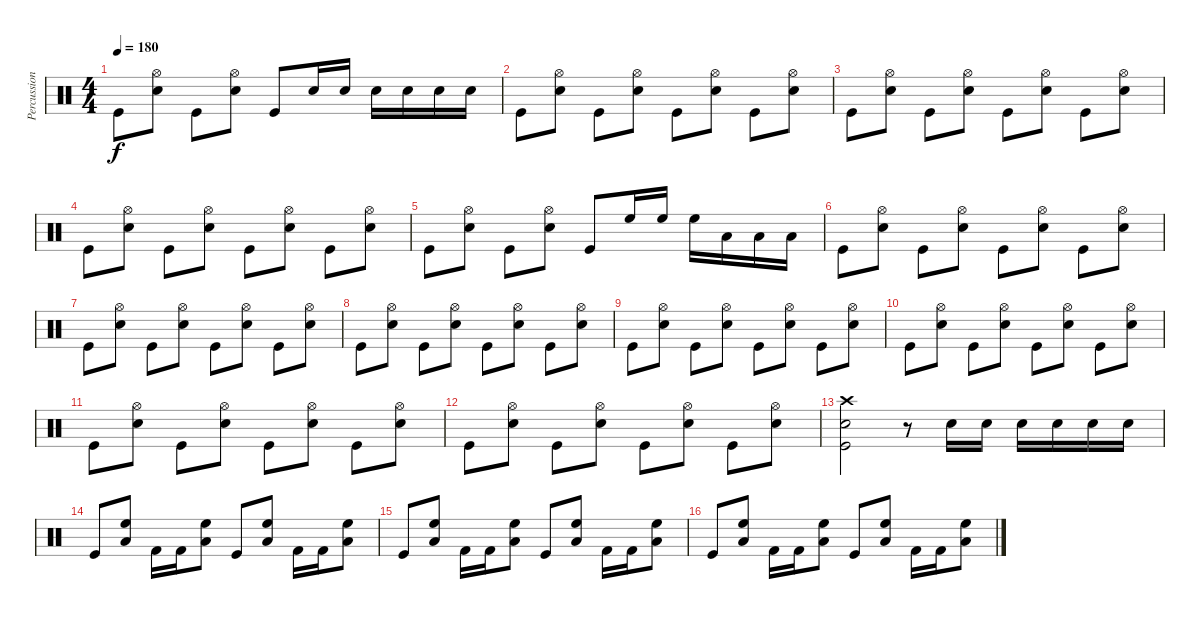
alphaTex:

\track ("Percussion" "Percussion") {instrument percussion}
\staff {score}
\articulation defaults
\ts (4 4)
\tempo 180
\clef neutral
\ks c "Kick (hit)".8{dy f}
("Hi-Hat (open)" "Electric Snare (hit)").8 "Kick (hit)".8 ("Hi-Hat (open)" "Electric Snare (hit)").8 "Kick (hit)".8 "Electric Snare (hit)".16 "Electric Snare (hit)".16 "Electric Snare (hit)".16 "Electric Snare (hit)".16 "Electric Snare (hit)".16 "Electric Snare (hit)".16 |
"Kick (hit)".8 ("Hi-Hat (open)" "Electric Snare (hit)").8 "Kick (hit)".8 ("Hi-Hat (open)" "Electric Snare (hit)").8 "Kick (hit)".8 ("Hi-Hat (open)" "Electric Snare (hit)").8 "Kick (hit)".8 ("Hi-Hat (open)" "Electric Snare (hit)").8 |
"Kick (hit)".8 ("Hi-Hat (open)" "Electric Snare (hit)").8 "Kick (hit)".8 ("Hi-Hat (open)" "Electric Snare (hit)").8 "Kick (hit)".8 ("Hi-Hat (open)" "Electric Snare (hit)").8 "Kick (hit)".8 ("Hi-Hat (open)" "Electric Snare (hit)").8 |
"Kick (hit)".8 ("Hi-Hat (open)" "Electric Snare (hit)").8 "Kick (hit)".8 ("Hi-Hat (open)" "Electric Snare (hit)").8 "Kick (hit)".8 ("Hi-Hat (open)" "Electric Snare (hit)").8 "Kick (hit)".8 ("Hi-Hat (open)" "Electric Snare (hit)").8 |
"Kick (hit)".8 ("Hi-Hat (open)" "Electric Snare (hit)").8 "Kick (hit)".8 ("Hi-Hat (open)" "Electric Snare (hit)").8 "Kick (hit)".8 "High Floor Tom (hit)".16 "High Floor Tom (hit)".16 "High Floor Tom (hit)".16 "Low Floor Tom (hit)".16 "Low Floor Tom (hit)".16 "Low Floor Tom (hit)".16 |
"Kick (hit)".8 ("Hi-Hat (open)" "Electric Snare (hit)").8 "Kick (hit)".8 ("Hi-Hat (open)" "Electric Snare (hit)").8 "Kick (hit)".8 ("Hi-Hat (open)" "Electric Snare (hit)").8 "Kick (hit)".8 ("Hi-Hat (open)" "Electric Snare (hit)").8 |
"Kick (hit)".8 ("Hi-Hat (open)" "Electric Snare (hit)").8 "Kick (hit)".8 ("Hi-Hat (open)" "Electric Snare (hit)").8 "Kick (hit)".8 ("Hi-Hat (open)" "Electric Snare (hit)").8 "Kick (hit)".8 ("Hi-Hat (open)" "Electric Snare (hit)").8 |
"Kick (hit)".8 ("Hi-Hat (open)" "Electric Snare (hit)").8 "Kick (hit)".8 ("Hi-Hat (open)" "Electric Snare (hit)").8 "Kick (hit)".8 ("Hi-Hat (open)" "Electric Snare (hit)").8 "Kick (hit)".8 ("Hi-Hat (open)" "Electric Snare (hit)").8 |
"Kick (hit)".8 ("Hi-Hat (open)" "Electric Snare (hit)").8 "Kick (hit)".8 ("Hi-Hat (open)" "Electric Snare (hit)").8 "Kick (hit)".8 ("Hi-Hat (open)" "Electric Snare (hit)").8 "Kick (hit)".8 ("Hi-Hat (open)" "Electric Snare (hit)").8 |
"Kick (hit)".8 ("Hi-Hat (open)" "Electric Snare (hit)").8 "Kick (hit)".8 ("Hi-Hat (open)" "Electric Snare (hit)").8 "Kick (hit)".8 ("Hi-Hat (open)" "Electric Snare (hit)").8 "Kick (hit)".8 ("Hi-Hat (open)" "Electric Snare (hit)").8 |
"Kick (hit)".8 ("Hi-Hat (open)" "Electric Snare (hit)").8 "Kick (hit)".8 ("Hi-Hat (open)" "Electric Snare (hit)").8 "Kick (hit)".8 ("Hi-Hat (open)" "Electric Snare (hit)").8 "Kick (hit)".8 ("Hi-Hat (open)" "Electric Snare (hit)").8 |
"Kick (hit)".8 ("Hi-Hat (open)" "Electric Snare (hit)").8 "Kick (hit)".8 ("Hi-Hat (open)" "Electric Snare (hit)").8 "Kick (hit)".8 ("Hi-Hat (open)" "Electric Snare (hit)").8 "Kick (hit)".8 ("Hi-Hat (open)" "Electric Snare (hit)").8 |
("Crash high (hit)" "Electric Snare (hit)" "Kick (hit)").2 r.8 "Electric Snare (hit)".16 "Electric Snare (hit)".16 "Electric Snare (hit)".16 "Electric Snare (hit)".16 "Electric Snare (hit)".16 "Electric Snare (hit)".16 |
"Kick (hit)".8 ("High Floor Tom (hit)" "Low Floor Tom (hit)").8 "Kick (hit) 2".16 "Kick (hit) 2".16 ("High Floor Tom (hit)" "Low Floor Tom (hit)").8 "Kick (hit)".8 ("High Floor Tom (hit)" "Low Floor Tom (hit)").8 "Kick (hit) 2".16 "Kick (hit) 2".16 ("High Floor Tom (hit)" "Low Floor Tom (hit)").8 |
"Kick (hit)".8 ("High Floor Tom (hit)" "Low Floor Tom (hit)").8 "Kick (hit) 2".16 "Kick (hit) 2".16 ("High Floor Tom (hit)" "Low Floor Tom (hit)").8 "Kick (hit)".8 ("High Floor Tom (hit)" "Low Floor Tom (hit)").8 "Kick (hit) 2".16 "Kick (hit) 2".16 ("High Floor Tom (hit)" "Low Floor Tom (hit)").8 |
"Kick (hit)".8 ("High Floor Tom (hit)" "Low Floor Tom (hit)").8 "Kick (hit) 2".16 "Kick (hit) 2".16 ("High Floor Tom (hit)" "Low Floor Tom (hit)").8 "Kick (hit)".8 ("High Floor Tom (hit)" "Low Floor Tom (hit)").8 "Kick (hit) 2".16 "Kick (hit) 2".16 ("High Floor Tom (hit)" "Low Floor Tom (hit)").8
